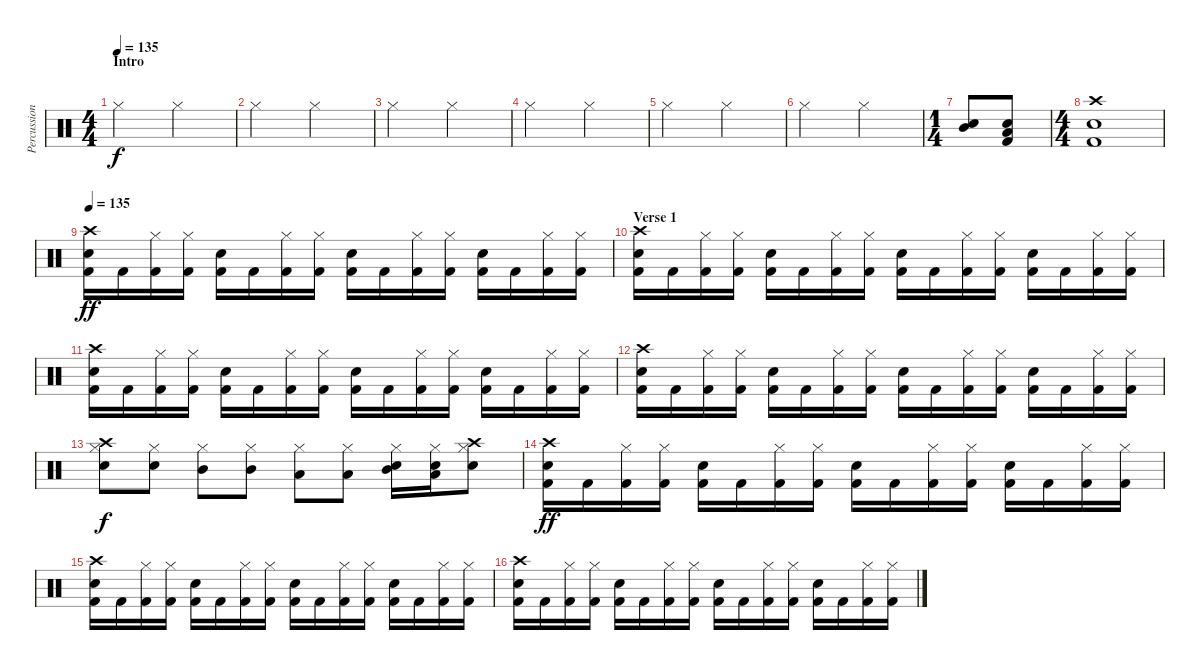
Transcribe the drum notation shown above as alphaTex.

\track ("Percussion" "Percussion") {instrument percussion}
\staff {score}
\articulation defaults
\ts (4 4)
\section ("" "Intro")
\tempo 135
\tempo 95
\tempo 135
\clef neutral
\ks c "Hi-Hat (closed)".2{dy f} "Hi-Hat (closed)".2
|
"Hi-Hat (closed)".2 "Hi-Hat (closed)".2 |
"Hi-Hat (closed)".2 "Hi-Hat (closed)".2 |
"Hi-Hat (closed)".2 "Hi-Hat (closed)".2 |
"Hi-Hat (closed)".2 "Hi-Hat (closed)".2 |
"Hi-Hat (closed)".2 "Hi-Hat (closed)".2 |
\ts (1 4)
("Mid Tom (hit)" "Snare (hit) 2").8 ("Low Tom (hit)" "Snare (hit) 2" "Kick (hit) 2").8 |
\ts (4 4)
("Crash high (hit)" "Electric Snare (hit)" "Kick (hit) 2").1 |
\tempo 135
("Crash high (hit)" "Electric Snare (hit)" "Kick (hit) 2").16{dy ff} "Kick (hit) 2".16 ("Hi-Hat (closed)" "Kick (hit) 2").16 ("Hi-Hat (closed)" "Kick (hit) 2").16 ("Electric Snare (hit)" "Kick (hit) 2").16 "Kick (hit) 2".16 ("Hi-Hat (closed)" "Kick (hit) 2").16 ("Hi-Hat (closed)" "Kick (hit) 2").16 ("Electric Snare (hit)" "Kick (hit) 2").16 "Kick (hit) 2".16 ("Hi-Hat (closed)" "Kick (hit) 2").16 ("Hi-Hat (closed)" "Kick (hit) 2").16 ("Electric Snare (hit)" "Kick (hit) 2").16 "Kick (hit) 2".16 ("Hi-Hat (closed)" "Kick (hit) 2").16 ("Hi-Hat (closed)" "Kick (hit) 2").16 |
\section ("" "Verse 1")
("Crash high (hit)" "Electric Snare (hit)" "Kick (hit) 2").16 "Kick (hit) 2".16 ("Hi-Hat (closed)" "Kick (hit) 2").16 ("Hi-Hat (closed)" "Kick (hit) 2").16 ("Electric Snare (hit)" "Kick (hit) 2").16 "Kick (hit) 2".16 ("Hi-Hat (closed)" "Kick (hit) 2").16 ("Hi-Hat (closed)" "Kick (hit) 2").16 ("Electric Snare (hit)" "Kick (hit) 2").16 "Kick (hit) 2".16 ("Hi-Hat (closed)" "Kick (hit) 2").16 ("Hi-Hat (closed)" "Kick (hit) 2").16 ("Electric Snare (hit)" "Kick (hit) 2").16 "Kick (hit) 2".16 ("Hi-Hat (closed)" "Kick (hit) 2").16 ("Hi-Hat (closed)" "Kick (hit) 2").16 |
("Crash high (hit)" "Electric Snare (hit)" "Kick (hit) 2").16 "Kick (hit) 2".16 ("Hi-Hat (closed)" "Kick (hit) 2").16 ("Hi-Hat (closed)" "Kick (hit) 2").16 ("Electric Snare (hit)" "Kick (hit) 2").16 "Kick (hit) 2".16 ("Hi-Hat (closed)" "Kick (hit) 2").16 ("Hi-Hat (closed)" "Kick (hit) 2").16 ("Electric Snare (hit)" "Kick (hit) 2").16 "Kick (hit) 2".16 ("Hi-Hat (closed)" "Kick (hit) 2").16 ("Hi-Hat (closed)" "Kick (hit) 2").16 ("Electric Snare (hit)" "Kick (hit) 2").16 "Kick (hit) 2".16 ("Hi-Hat (closed)" "Kick (hit) 2").16 ("Hi-Hat (closed)" "Kick (hit) 2").16 |
("Crash high (hit)" "Electric Snare (hit)" "Kick (hit) 2").16 "Kick (hit) 2".16 ("Hi-Hat (closed)" "Kick (hit) 2").16 ("Hi-Hat (closed)" "Kick (hit) 2").16 ("Electric Snare (hit)" "Kick (hit) 2").16 "Kick (hit) 2".16 ("Hi-Hat (closed)" "Kick (hit) 2").16 ("Hi-Hat (closed)" "Kick (hit) 2").16 ("Electric Snare (hit)" "Kick (hit) 2").16 "Kick (hit) 2".16 ("Hi-Hat (closed)" "Kick (hit) 2").16 ("Hi-Hat (closed)" "Kick (hit) 2").16 ("Electric Snare (hit)" "Kick (hit) 2").16 "Kick (hit) 2".16 ("Hi-Hat (closed)" "Kick (hit) 2").16 ("Hi-Hat (closed)" "Kick (hit) 2").16 |
("Hi-Hat (closed)" "Crash high (hit)" "Electric Snare (hit)").8{dy f} ("Hi-Hat (closed)" "Electric Snare (hit)").8 ("Hi-Hat (closed)" "Mid Tom (hit)").8 ("Hi-Hat (closed)" "Mid Tom (hit)").8 ("Hi-Hat (closed)" "Low Tom (hit)").8 ("Hi-Hat (closed)" "Low Tom (hit)").8 ("Hi-Hat (closed)" "Mid Tom (hit)" "Electric Snare (hit)").16 ("Hi-Hat (closed)" "Low Tom (hit)" "Electric Snare (hit)").16 ("Hi-Hat (closed)" "Crash high (hit)" "Electric Snare (hit)").8 |
("Crash high (hit)" "Electric Snare (hit)" "Kick (hit) 2").16{dy ff} "Kick (hit) 2".16 ("Hi-Hat (closed)" "Kick (hit) 2").16 ("Hi-Hat (closed)" "Kick (hit) 2").16 ("Electric Snare (hit)" "Kick (hit) 2").16 "Kick (hit) 2".16 ("Hi-Hat (closed)" "Kick (hit) 2").16 ("Hi-Hat (closed)" "Kick (hit) 2").16 ("Electric Snare (hit)" "Kick (hit) 2").16 "Kick (hit) 2".16 ("Hi-Hat (closed)" "Kick (hit) 2").16 ("Hi-Hat (closed)" "Kick (hit) 2").16 ("Electric Snare (hit)" "Kick (hit) 2").16 "Kick (hit) 2".16 ("Hi-Hat (closed)" "Kick (hit) 2").16 ("Hi-Hat (closed)" "Kick (hit) 2").16 |
("Crash high (hit)" "Electric Snare (hit)" "Kick (hit) 2").16 "Kick (hit) 2".16 ("Hi-Hat (closed)" "Kick (hit) 2").16 ("Hi-Hat (closed)" "Kick (hit) 2").16 ("Electric Snare (hit)" "Kick (hit) 2").16 "Kick (hit) 2".16 ("Hi-Hat (closed)" "Kick (hit) 2").16 ("Hi-Hat (closed)" "Kick (hit) 2").16 ("Electric Snare (hit)" "Kick (hit) 2").16 "Kick (hit) 2".16 ("Hi-Hat (closed)" "Kick (hit) 2").16 ("Hi-Hat (closed)" "Kick (hit) 2").16 ("Electric Snare (hit)" "Kick (hit) 2").16 "Kick (hit) 2".16 ("Hi-Hat (closed)" "Kick (hit) 2").16 ("Hi-Hat (closed)" "Kick (hit) 2").16 |
("Crash high (hit)" "Electric Snare (hit)" "Kick (hit) 2").16 "Kick (hit) 2".16 ("Hi-Hat (closed)" "Kick (hit) 2").16 ("Hi-Hat (closed)" "Kick (hit) 2").16 ("Electric Snare (hit)" "Kick (hit) 2").16 "Kick (hit) 2".16 ("Hi-Hat (closed)" "Kick (hit) 2").16 ("Hi-Hat (closed)" "Kick (hit) 2").16 ("Electric Snare (hit)" "Kick (hit) 2").16 "Kick (hit) 2".16 ("Hi-Hat (closed)" "Kick (hit) 2").16 ("Hi-Hat (closed)" "Kick (hit) 2").16 ("Electric Snare (hit)" "Kick (hit) 2").16 "Kick (hit) 2".16 ("Hi-Hat (closed)" "Kick (hit) 2").16 ("Hi-Hat (closed)" "Kick (hit) 2").16
